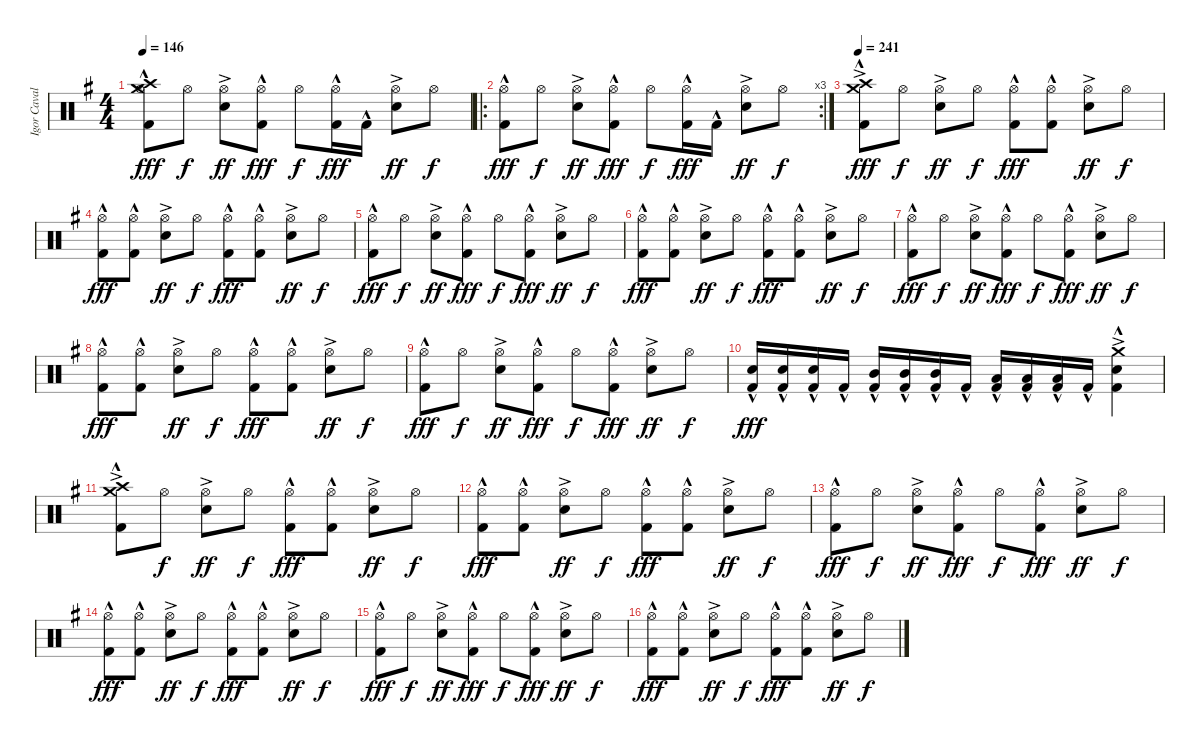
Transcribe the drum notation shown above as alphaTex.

\track ("Igor Cavalera" "Igor Caval") {instrument percussion}
\staff {score}
\articulation defaults
\ts (4 4)
\tempo 146
\clef neutral
\ks g
("Crash high (hit)"{hac} "Crash medium (hit)" "Hi-Hat (open)" "Kick (hit) 2"{hac}).8{dy fff} "Hi-Hat (open)".8{dy f} ("Snare (hit) 2"{ac} "Hi-Hat (open)").8{dy ff} ("Hi-Hat (open)" "Kick (hit) 2"{hac}).8{dy fff} "Hi-Hat (open)".8{dy f} ("Hi-Hat (open)" "Kick (hit) 2"{hac}).16{dy fff} "Kick (hit) 2"{hac}.16 ("Snare (hit) 2"{ac} "Hi-Hat (open)").8{dy ff} "Hi-Hat (open)".8{dy f} |
\ro
\rc 3
("Hi-Hat (open)" "Kick (hit) 2"{hac}).8{dy fff} "Hi-Hat (open)".8{dy f} ("Snare (hit) 2"{ac} "Hi-Hat (open)").8{dy ff} ("Hi-Hat (open)" "Kick (hit) 2"{hac}).8{dy fff} "Hi-Hat (open)".8{dy f} ("Hi-Hat (open)" "Kick (hit) 2"{hac}).16{dy fff} "Kick (hit) 2"{hac}.16 ("Snare (hit) 2"{ac} "Hi-Hat (open)").8{dy ff} "Hi-Hat (open)".8{dy f} |
\tempo 241
("Crash high (hit)" "Crash medium (hit)"{ac} "Kick (hit) 2"{hac}).8{dy fff} "Hi-Hat (open)".8{dy f} ("Snare (hit) 2"{ac} "Hi-Hat (open)").8{dy ff} "Hi-Hat (open)".8{dy f} ("Hi-Hat (open)" "Kick (hit) 2"{hac}).8{dy fff} ("Hi-Hat (open)" "Kick (hit) 2"{hac}).8 ("Snare (hit) 2"{ac} "Hi-Hat (open)").8{dy ff} "Hi-Hat (open)".8{dy f} |
("Hi-Hat (open)" "Kick (hit) 2"{hac}).8{dy fff} ("Hi-Hat (open)" "Kick (hit) 2"{hac}).8 ("Snare (hit) 2"{ac} "Hi-Hat (open)").8{dy ff} "Hi-Hat (open)".8{dy f} ("Hi-Hat (open)" "Kick (hit) 2"{hac}).8{dy fff} ("Hi-Hat (open)" "Kick (hit) 2"{hac}).8 ("Snare (hit) 2"{ac} "Hi-Hat (open)").8{dy ff} "Hi-Hat (open)".8{dy f} |
("Hi-Hat (open)" "Kick (hit) 2"{hac}).8{dy fff} "Hi-Hat (open)".8{dy f} ("Snare (hit) 2"{ac} "Hi-Hat (open)").8{dy ff} ("Hi-Hat (open)" "Kick (hit) 2"{hac}).8{dy fff} "Hi-Hat (open)".8{dy f} ("Hi-Hat (open)" "Kick (hit) 2"{hac}).8{dy fff} ("Snare (hit) 2"{ac} "Hi-Hat (open)").8{dy ff} "Hi-Hat (open)".8{dy f} |
("Hi-Hat (open)" "Kick (hit) 2"{hac}).8{dy fff} ("Hi-Hat (open)" "Kick (hit) 2"{hac}).8 ("Snare (hit) 2"{ac} "Hi-Hat (open)").8{dy ff} "Hi-Hat (open)".8{dy f} ("Hi-Hat (open)" "Kick (hit) 2"{hac}).8{dy fff} ("Hi-Hat (open)" "Kick (hit) 2"{hac}).8 ("Snare (hit) 2"{ac} "Hi-Hat (open)").8{dy ff} "Hi-Hat (open)".8{dy f} |
("Hi-Hat (open)" "Kick (hit) 2"{hac}).8{dy fff} "Hi-Hat (open)".8{dy f} ("Snare (hit) 2"{ac} "Hi-Hat (open)").8{dy ff} ("Hi-Hat (open)" "Kick (hit) 2"{hac}).8{dy fff} "Hi-Hat (open)".8{dy f} ("Hi-Hat (open)" "Kick (hit) 2"{hac}).8{dy fff} ("Snare (hit) 2"{ac} "Hi-Hat (open)").8{dy ff} "Hi-Hat (open)".8{dy f} |
("Hi-Hat (open)" "Kick (hit) 2"{hac}).8{dy fff} ("Hi-Hat (open)" "Kick (hit) 2"{hac}).8 ("Snare (hit) 2"{ac} "Hi-Hat (open)").8{dy ff} "Hi-Hat (open)".8{dy f} ("Hi-Hat (open)" "Kick (hit) 2"{hac}).8{dy fff} ("Hi-Hat (open)" "Kick (hit) 2"{hac}).8 ("Snare (hit) 2"{ac} "Hi-Hat (open)").8{dy ff} "Hi-Hat (open)".8{dy f} |
("Hi-Hat (open)" "Kick (hit) 2"{hac}).8{dy fff} "Hi-Hat (open)".8{dy f} ("Snare (hit) 2"{ac} "Hi-Hat (open)").8{dy ff} ("Hi-Hat (open)" "Kick (hit) 2"{hac}).8{dy fff} "Hi-Hat (open)".8{dy f} ("Hi-Hat (open)" "Kick (hit) 2"{hac}).8{dy fff} ("Snare (hit) 2"{ac} "Hi-Hat (open)").8{dy ff} "Hi-Hat (open)".8{dy f} |
("Snare (hit) 2" "Kick (hit) 2"{hac}).16{dy fff} ("Snare (hit) 2" "Kick (hit) 2"{hac}).16 ("Snare (hit) 2" "Kick (hit) 2"{hac}).16 "Kick (hit) 2"{hac}.16 ("Mid Tom (hit)"{hac} "Kick (hit) 2"{hac}).16 ("Mid Tom (hit)"{hac} "Kick (hit) 2"{hac}).16 ("Mid Tom (hit)"{hac} "Kick (hit) 2"{hac}).16 "Kick (hit) 2"{hac}.16 ("Low Tom (hit)"{hac} "Kick (hit) 2"{hac}).16 ("Low Tom (hit)"{hac} "Kick (hit) 2"{hac}).16 ("Low Tom (hit)"{hac} "Kick (hit) 2"{hac}).16 "Kick (hit) 2"{hac}.16 ("Crash medium (hit)"{ac} "Snare (hit) 2" "Kick (hit) 2"{hac}).4 |
("Crash high (hit)"{ac} "Crash medium (hit)" "Kick (hit) 2"{hac}).8 "Hi-Hat (open)".8{dy f} ("Snare (hit) 2"{ac} "Hi-Hat (open)").8{dy ff} "Hi-Hat (open)".8{dy f} ("Hi-Hat (open)" "Kick (hit) 2"{hac}).8{dy fff} ("Hi-Hat (open)" "Kick (hit) 2"{hac}).8 ("Snare (hit) 2"{ac} "Hi-Hat (open)").8{dy ff} "Hi-Hat (open)".8{dy f} |
("Hi-Hat (open)" "Kick (hit) 2"{hac}).8{dy fff} ("Hi-Hat (open)" "Kick (hit) 2"{hac}).8 ("Snare (hit) 2"{ac} "Hi-Hat (open)").8{dy ff} "Hi-Hat (open)".8{dy f} ("Hi-Hat (open)" "Kick (hit) 2"{hac}).8{dy fff} ("Hi-Hat (open)" "Kick (hit) 2"{hac}).8 ("Snare (hit) 2"{ac} "Hi-Hat (open)").8{dy ff} "Hi-Hat (open)".8{dy f} |
("Hi-Hat (open)" "Kick (hit) 2"{hac}).8{dy fff} "Hi-Hat (open)".8{dy f} ("Snare (hit) 2"{ac} "Hi-Hat (open)").8{dy ff} ("Hi-Hat (open)" "Kick (hit) 2"{hac}).8{dy fff} "Hi-Hat (open)".8{dy f} ("Hi-Hat (open)" "Kick (hit) 2"{hac}).8{dy fff} ("Snare (hit) 2"{ac} "Hi-Hat (open)").8{dy ff} "Hi-Hat (open)".8{dy f} |
("Hi-Hat (open)" "Kick (hit) 2"{hac}).8{dy fff} ("Hi-Hat (open)" "Kick (hit) 2"{hac}).8 ("Snare (hit) 2"{ac} "Hi-Hat (open)").8{dy ff} "Hi-Hat (open)".8{dy f} ("Hi-Hat (open)" "Kick (hit) 2"{hac}).8{dy fff} ("Hi-Hat (open)" "Kick (hit) 2"{hac}).8 ("Snare (hit) 2"{ac} "Hi-Hat (open)").8{dy ff} "Hi-Hat (open)".8{dy f} |
("Hi-Hat (open)" "Kick (hit) 2"{hac}).8{dy fff} "Hi-Hat (open)".8{dy f} ("Snare (hit) 2"{ac} "Hi-Hat (open)").8{dy ff} ("Hi-Hat (open)" "Kick (hit) 2"{hac}).8{dy fff} "Hi-Hat (open)".8{dy f} ("Hi-Hat (open)" "Kick (hit) 2"{hac}).8{dy fff} ("Snare (hit) 2"{ac} "Hi-Hat (open)").8{dy ff} "Hi-Hat (open)".8{dy f} |
("Hi-Hat (open)" "Kick (hit) 2"{hac}).8{dy fff} ("Hi-Hat (open)" "Kick (hit) 2"{hac}).8 ("Snare (hit) 2"{ac} "Hi-Hat (open)").8{dy ff} "Hi-Hat (open)".8{dy f} ("Hi-Hat (open)" "Kick (hit) 2"{hac}).8{dy fff} ("Hi-Hat (open)" "Kick (hit) 2"{hac}).8 ("Snare (hit) 2"{ac} "Hi-Hat (open)").8{dy ff} "Hi-Hat (open)".8{dy f}
